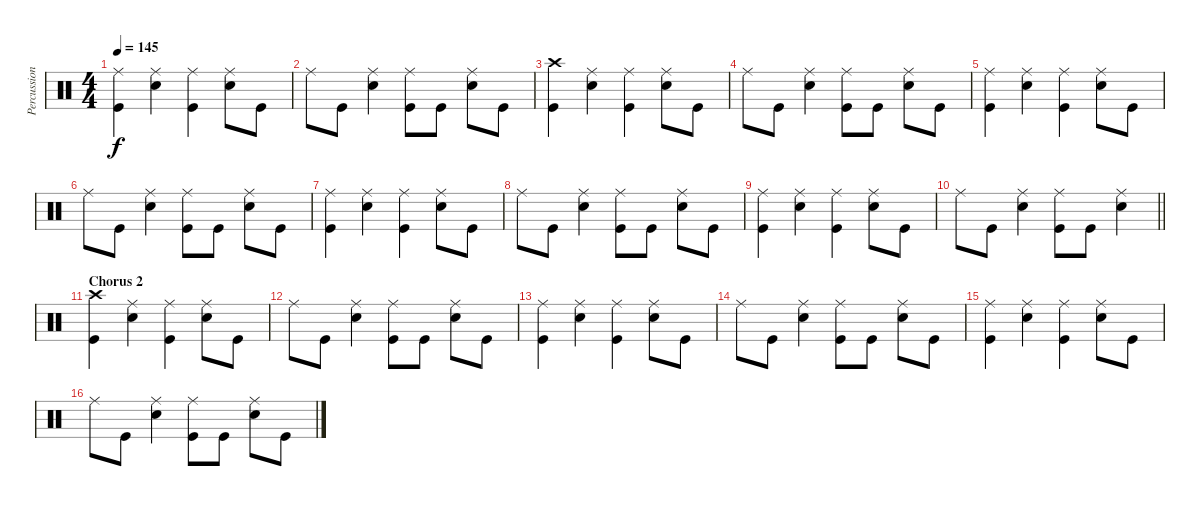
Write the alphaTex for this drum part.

\track ("Percussion" "Percussion") {instrument percussion}
\staff {score}
\articulation defaults
\ts (4 4)
\tempo 145
\clef neutral
\ks c
("Kick (hit)" "Ride (middle)").4{dy f} ("Ride (middle)" "Snare (hit) 2").4 ("Kick (hit)" "Ride (middle)").4 ("Ride (middle)" "Snare (hit) 2").8 "Kick (hit)".8 |
"Ride (middle)".8 "Kick (hit)".8 ("Ride (middle)" "Snare (hit) 2").4 ("Kick (hit)" "Ride (middle)").8 "Kick (hit)".8 ("Ride (middle)" "Snare (hit) 2").8 "Kick (hit)".8 |
("Kick (hit)" "Crash high (hit)").4 ("Ride (middle)" "Snare (hit) 2").4 ("Kick (hit)" "Ride (middle)").4 ("Ride (middle)" "Snare (hit) 2").8 "Kick (hit)".8 |
"Ride (middle)".8 "Kick (hit)".8 ("Ride (middle)" "Snare (hit) 2").4 ("Kick (hit)" "Ride (middle)").8 "Kick (hit)".8 ("Ride (middle)" "Snare (hit) 2").8 "Kick (hit)".8 |
("Kick (hit)" "Ride (middle)").4 ("Ride (middle)" "Snare (hit) 2").4 ("Kick (hit)" "Ride (middle)").4 ("Ride (middle)" "Snare (hit) 2").8 "Kick (hit)".8 |
"Ride (middle)".8 "Kick (hit)".8 ("Ride (middle)" "Snare (hit) 2").4 ("Kick (hit)" "Ride (middle)").8 "Kick (hit)".8 ("Ride (middle)" "Snare (hit) 2").8 "Kick (hit)".8 |
("Kick (hit)" "Ride (middle)").4 ("Ride (middle)" "Snare (hit) 2").4 ("Kick (hit)" "Ride (middle)").4 ("Ride (middle)" "Snare (hit) 2").8 "Kick (hit)".8 |
"Ride (middle)".8 "Kick (hit)".8 ("Ride (middle)" "Snare (hit) 2").4 ("Kick (hit)" "Ride (middle)").8 "Kick (hit)".8 ("Ride (middle)" "Snare (hit) 2").8 "Kick (hit)".8 |
("Kick (hit)" "Ride (middle)").4 ("Ride (middle)" "Snare (hit) 2").4 ("Kick (hit)" "Ride (middle)").4 ("Ride (middle)" "Snare (hit) 2").8 "Kick (hit)".8 |
\barLineRight lightlight "Ride (middle)".8 "Kick (hit)".8
("Ride (middle)" "Snare (hit) 2").4 ("Kick (hit)" "Ride (middle)").8 "Kick (hit)".8 ("Ride (middle)" "Snare (hit) 2").4 |
\section ("" "Chorus 2")
("Kick (hit)" "Crash high (hit)").4 ("Ride (middle)" "Snare (hit) 2").4 ("Kick (hit)" "Ride (middle)").4 ("Ride (middle)" "Snare (hit) 2").8 "Kick (hit)".8 |
"Ride (middle)".8 "Kick (hit)".8 ("Ride (middle)" "Snare (hit) 2").4 ("Kick (hit)" "Ride (middle)").8 "Kick (hit)".8 ("Ride (middle)" "Snare (hit) 2").8 "Kick (hit)".8 |
("Kick (hit)" "Ride (middle)").4 ("Ride (middle)" "Snare (hit) 2").4 ("Kick (hit)" "Ride (middle)").4 ("Ride (middle)" "Snare (hit) 2").8 "Kick (hit)".8 |
"Ride (middle)".8 "Kick (hit)".8 ("Ride (middle)" "Snare (hit) 2").4 ("Kick (hit)" "Ride (middle)").8 "Kick (hit)".8 ("Ride (middle)" "Snare (hit) 2").8 "Kick (hit)".8 |
("Kick (hit)" "Ride (middle)").4 ("Ride (middle)" "Snare (hit) 2").4 ("Kick (hit)" "Ride (middle)").4 ("Ride (middle)" "Snare (hit) 2").8 "Kick (hit)".8 |
"Ride (middle)".8 "Kick (hit)".8 ("Ride (middle)" "Snare (hit) 2").4 ("Kick (hit)" "Ride (middle)").8 "Kick (hit)".8 ("Ride (middle)" "Snare (hit) 2").8 "Kick (hit)".8
